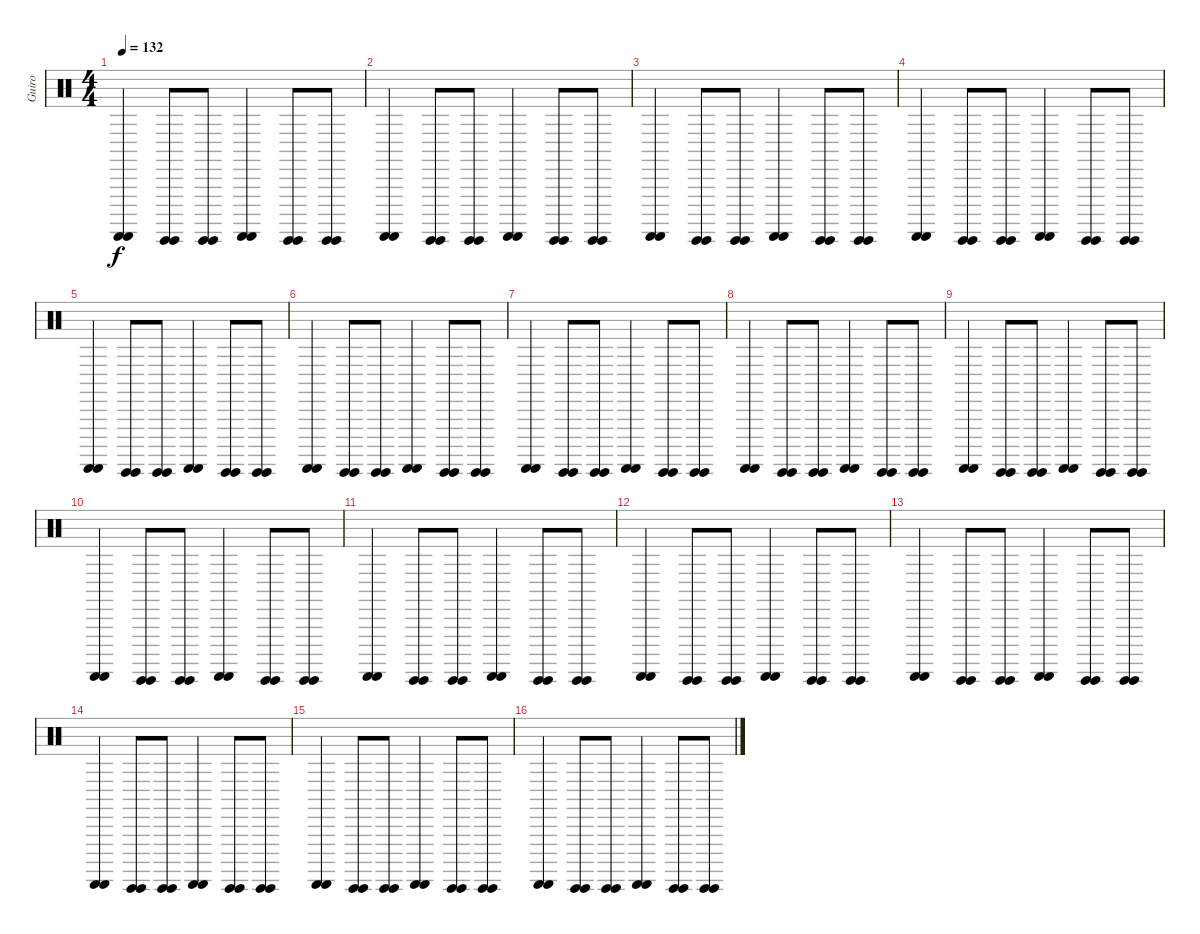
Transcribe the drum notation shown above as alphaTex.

\track ("Guiro" "Guiro") {instrument percussion}
\staff {score}
\articulation defaults
\ts (4 4)
\tempo 132
\clef neutral
\ks c
("Guiro (scrap-return)" "Guiro (scrap-return)").4{dy f} ("Guiro (hit)" "Guiro (hit)").8 ("Guiro (hit)" "Guiro (hit)").8 ("Guiro (scrap-return)" "Guiro (scrap-return)").4 ("Guiro (hit)" "Guiro (hit)").8 ("Guiro (hit)" "Guiro (hit)").8 |
("Guiro (scrap-return)" "Guiro (scrap-return)").4 ("Guiro (hit)" "Guiro (hit)").8 ("Guiro (hit)" "Guiro (hit)").8 ("Guiro (scrap-return)" "Guiro (scrap-return)").4 ("Guiro (hit)" "Guiro (hit)").8 ("Guiro (hit)" "Guiro (hit)").8 |
("Guiro (scrap-return)" "Guiro (scrap-return)").4 ("Guiro (hit)" "Guiro (hit)").8 ("Guiro (hit)" "Guiro (hit)").8 ("Guiro (scrap-return)" "Guiro (scrap-return)").4 ("Guiro (hit)" "Guiro (hit)").8 ("Guiro (hit)" "Guiro (hit)").8 |
("Guiro (scrap-return)" "Guiro (scrap-return)").4 ("Guiro (hit)" "Guiro (hit)").8 ("Guiro (hit)" "Guiro (hit)").8 ("Guiro (scrap-return)" "Guiro (scrap-return)").4 ("Guiro (hit)" "Guiro (hit)").8 ("Guiro (hit)" "Guiro (hit)").8 |
("Guiro (scrap-return)" "Guiro (scrap-return)").4 ("Guiro (hit)" "Guiro (hit)").8 ("Guiro (hit)" "Guiro (hit)").8 ("Guiro (scrap-return)" "Guiro (scrap-return)").4 ("Guiro (hit)" "Guiro (hit)").8 ("Guiro (hit)" "Guiro (hit)").8 |
("Guiro (scrap-return)" "Guiro (scrap-return)").4 ("Guiro (hit)" "Guiro (hit)").8 ("Guiro (hit)" "Guiro (hit)").8 ("Guiro (scrap-return)" "Guiro (scrap-return)").4 ("Guiro (hit)" "Guiro (hit)").8 ("Guiro (hit)" "Guiro (hit)").8 |
("Guiro (scrap-return)" "Guiro (scrap-return)").4 ("Guiro (hit)" "Guiro (hit)").8 ("Guiro (hit)" "Guiro (hit)").8 ("Guiro (scrap-return)" "Guiro (scrap-return)").4 ("Guiro (hit)" "Guiro (hit)").8 ("Guiro (hit)" "Guiro (hit)").8 |
("Guiro (scrap-return)" "Guiro (scrap-return)").4 ("Guiro (hit)" "Guiro (hit)").8 ("Guiro (hit)" "Guiro (hit)").8 ("Guiro (scrap-return)" "Guiro (scrap-return)").4 ("Guiro (hit)" "Guiro (hit)").8 ("Guiro (hit)" "Guiro (hit)").8 |
("Guiro (scrap-return)" "Guiro (scrap-return)").4 ("Guiro (hit)" "Guiro (hit)").8 ("Guiro (hit)" "Guiro (hit)").8 ("Guiro (scrap-return)" "Guiro (scrap-return)").4 ("Guiro (hit)" "Guiro (hit)").8 ("Guiro (hit)" "Guiro (hit)").8 |
("Guiro (scrap-return)" "Guiro (scrap-return)").4 ("Guiro (hit)" "Guiro (hit)").8 ("Guiro (hit)" "Guiro (hit)").8 ("Guiro (scrap-return)" "Guiro (scrap-return)").4 ("Guiro (hit)" "Guiro (hit)").8 ("Guiro (hit)" "Guiro (hit)").8 |
("Guiro (scrap-return)" "Guiro (scrap-return)").4 ("Guiro (hit)" "Guiro (hit)").8 ("Guiro (hit)" "Guiro (hit)").8 ("Guiro (scrap-return)" "Guiro (scrap-return)").4 ("Guiro (hit)" "Guiro (hit)").8 ("Guiro (hit)" "Guiro (hit)").8 |
("Guiro (scrap-return)" "Guiro (scrap-return)").4 ("Guiro (hit)" "Guiro (hit)").8 ("Guiro (hit)" "Guiro (hit)").8 ("Guiro (scrap-return)" "Guiro (scrap-return)").4 ("Guiro (hit)" "Guiro (hit)").8 ("Guiro (hit)" "Guiro (hit)").8 |
("Guiro (scrap-return)" "Guiro (scrap-return)").4 ("Guiro (hit)" "Guiro (hit)").8 ("Guiro (hit)" "Guiro (hit)").8 ("Guiro (scrap-return)" "Guiro (scrap-return)").4 ("Guiro (hit)" "Guiro (hit)").8 ("Guiro (hit)" "Guiro (hit)").8 |
("Guiro (scrap-return)" "Guiro (scrap-return)").4 ("Guiro (hit)" "Guiro (hit)").8 ("Guiro (hit)" "Guiro (hit)").8 ("Guiro (scrap-return)" "Guiro (scrap-return)").4 ("Guiro (hit)" "Guiro (hit)").8 ("Guiro (hit)" "Guiro (hit)").8 |
("Guiro (scrap-return)" "Guiro (scrap-return)").4 ("Guiro (hit)" "Guiro (hit)").8 ("Guiro (hit)" "Guiro (hit)").8 ("Guiro (scrap-return)" "Guiro (scrap-return)").4 ("Guiro (hit)" "Guiro (hit)").8 ("Guiro (hit)" "Guiro (hit)").8 |
("Guiro (scrap-return)" "Guiro (scrap-return)").4 ("Guiro (hit)" "Guiro (hit)").8 ("Guiro (hit)" "Guiro (hit)").8 ("Guiro (scrap-return)" "Guiro (scrap-return)").4 ("Guiro (hit)" "Guiro (hit)").8 ("Guiro (hit)" "Guiro (hit)").8
